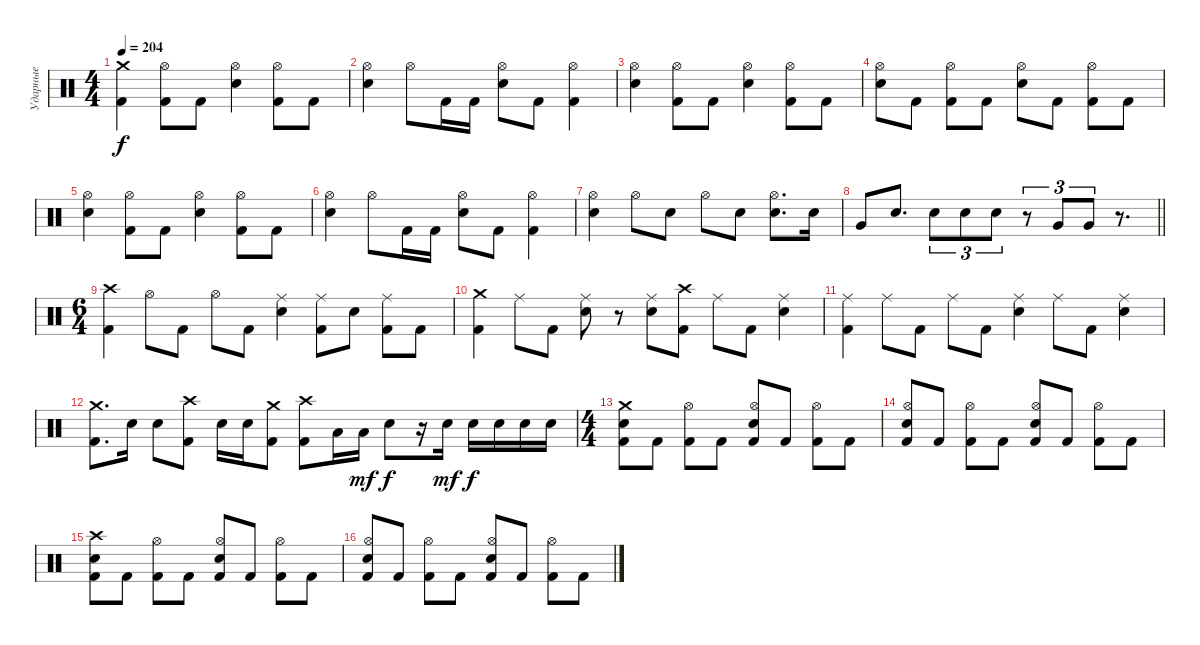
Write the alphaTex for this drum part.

\track ("Ударные" "Ударные") {instrument percussion}
\staff {score}
\articulation defaults
\ts (4 4)
\tempo 204
\clef neutral
\ks c
("Crash medium (hit)" "Kick (hit) 2").4{dy f} ("Hi-Hat (open)" "Kick (hit) 2").8 "Kick (hit) 2".8 ("Hi-Hat (open)" "Snare (hit) 2").4 ("Hi-Hat (open)" "Kick (hit) 2").8 "Kick (hit) 2".8 |
("Hi-Hat (open)" "Snare (hit) 2").4 "Hi-Hat (open)".8 "Kick (hit) 2".16 "Kick (hit) 2".16 ("Hi-Hat (open)" "Snare (hit) 2").8 "Kick (hit) 2".8 ("Hi-Hat (open)" "Kick (hit) 2").4 |
("Hi-Hat (open)" "Snare (hit) 2").4 ("Hi-Hat (open)" "Kick (hit) 2").8 "Kick (hit) 2".8 ("Hi-Hat (open)" "Snare (hit) 2").4 ("Hi-Hat (open)" "Kick (hit) 2").8 "Kick (hit) 2".8 |
("Hi-Hat (open)" "Snare (hit) 2").8 "Kick (hit) 2".8 ("Hi-Hat (open)" "Kick (hit) 2").8 "Kick (hit) 2".8 ("Hi-Hat (open)" "Snare (hit) 2").8 "Kick (hit) 2".8 ("Hi-Hat (open)" "Kick (hit) 2").8 "Kick (hit) 2".8 |
("Hi-Hat (open)" "Snare (hit) 2").4 ("Hi-Hat (open)" "Kick (hit) 2").8 "Kick (hit) 2".8 ("Hi-Hat (open)" "Snare (hit) 2").4 ("Hi-Hat (open)" "Kick (hit) 2").8 "Kick (hit) 2".8 |
("Hi-Hat (open)" "Snare (hit) 2").4 "Hi-Hat (open)".8 "Kick (hit) 2".16 "Kick (hit) 2".16 ("Hi-Hat (open)" "Snare (hit) 2").8 "Kick (hit) 2".8 ("Hi-Hat (open)" "Kick (hit) 2").4 |
("Hi-Hat (open)" "Snare (hit) 2").4 "Hi-Hat (open)".8 "Snare (hit) 2".8 "Hi-Hat (open)".8 "Snare (hit) 2".8 ("Hi-Hat (open)" "Snare (hit) 2").8{d} "Snare (hit) 2".16 |
\barLineRight lightlight "Very Low Tom (hit)".8 "Snare (hit) 2".8{d} "Snare (hit) 2".8{tu (3 2)} "Snare (hit) 2".8{tu (3 2)} "Snare (hit) 2".8{tu (3 2)}
r.8{tu (3 2)} "Very Low Tom (hit)".8{tu (3 2)} "Very Low Tom (hit)".8{tu (3 2)} r.8{d} |
\ts (6 4)
("Crash high (hit)" "Kick (hit) 2").4 "Hi-Hat (open)".8 "Kick (hit) 2".8 "Hi-Hat (open)".8 "Kick (hit) 2".8 ("Ride (middle)" "Snare (hit) 2").4 ("Ride (middle)" "Kick (hit) 2").8 "Snare (hit) 2".8 ("Ride (middle)" "Kick (hit) 2").8 "Kick (hit) 2".8 |
("Crash medium (hit)" "Kick (hit) 2").4 "Ride (middle)".8 "Kick (hit) 2".8 ("Ride (middle)" "Snare (hit) 2").8 r.8 ("Ride (middle)" "Snare (hit) 2").8 ("Crash high (hit)" "Kick (hit) 2").8 "Ride (middle)".8 "Kick (hit) 2".8 ("Ride (middle)" "Snare (hit) 2").4 |
("Ride (middle)" "Kick (hit) 2").4 "Ride (middle)".8 "Kick (hit) 2".8 "Ride (middle)".8 "Kick (hit) 2".8 ("Ride (middle)" "Snare (hit) 2").4 "Ride (middle)".8 "Kick (hit) 2".8 ("Ride (middle)" "Snare (hit) 2").4 |
("Crash medium (hit)" "Kick (hit) 2").8{d} "Snare (hit) 2".16 "Snare (hit) 2".8 ("Crash high (hit)" "Kick (hit) 2").8 "Snare (hit) 2".16 "Snare (hit) 2".16 ("Crash medium (hit)" "Kick (hit) 2").8 ("Crash high (hit)" "Kick (hit) 2").8 "Low Tom (hit)".16 "Low Tom (hit)".16{dy mf} "Snare (hit) 2".8{dy f} r.16 "Snare (hit) 2".16{dy mf} "Snare (hit) 2".16{dy f} "Snare (hit) 2".16 "Snare (hit) 2".16 "Snare (hit) 2".16 |
\ts (4 4)
("Crash medium (hit)" "Snare (hit) 2" "Kick (hit) 2").8 "Kick (hit) 2".8 ("Hi-Hat (open)" "Kick (hit) 2").8 "Kick (hit) 2".8 ("Hi-Hat (open)" "Snare (hit) 2" "Kick (hit) 2").8 "Kick (hit) 2".8 ("Hi-Hat (open)" "Kick (hit) 2").8 "Kick (hit) 2".8 |
("Hi-Hat (open)" "Snare (hit) 2" "Kick (hit) 2").8 "Kick (hit) 2".8 ("Hi-Hat (open)" "Kick (hit) 2").8 "Kick (hit) 2".8 ("Hi-Hat (open)" "Snare (hit) 2" "Kick (hit) 2").8 "Kick (hit) 2".8 ("Hi-Hat (open)" "Kick (hit) 2").8 "Kick (hit) 2".8 |
("Crash high (hit)" "Snare (hit) 2" "Kick (hit) 2").8 "Kick (hit) 2".8 ("Hi-Hat (open)" "Kick (hit) 2").8 "Kick (hit) 2".8 ("Hi-Hat (open)" "Snare (hit) 2" "Kick (hit) 2").8 "Kick (hit) 2".8 ("Hi-Hat (open)" "Kick (hit) 2").8 "Kick (hit) 2".8 |
("Hi-Hat (open)" "Snare (hit) 2" "Kick (hit) 2").8 "Kick (hit) 2".8 ("Hi-Hat (open)" "Kick (hit) 2").8 "Kick (hit) 2".8 ("Hi-Hat (open)" "Snare (hit) 2" "Kick (hit) 2").8 "Kick (hit) 2".8 ("Hi-Hat (open)" "Kick (hit) 2").8 "Kick (hit) 2".8
